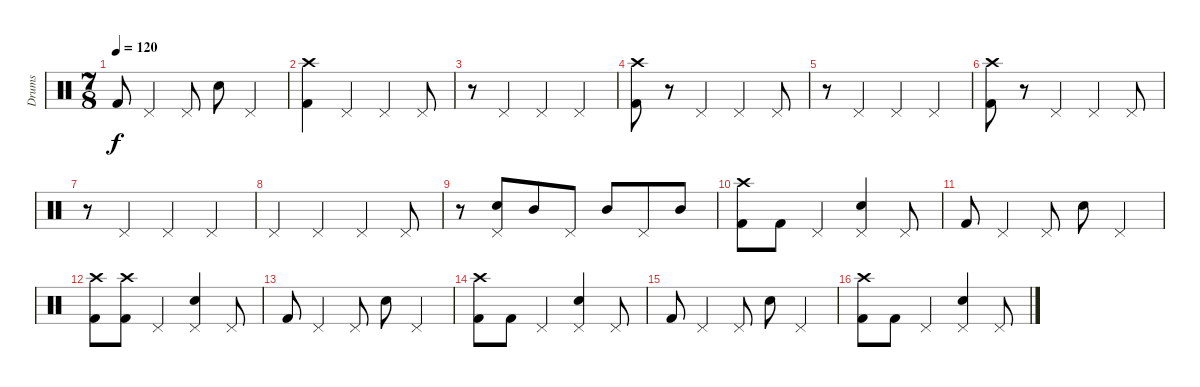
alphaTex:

\track ("Drums" "Drums") {instrument percussion}
\staff {score}
\articulation defaults
\ts (7 8)
\tempo 120
\clef neutral
\ks c "Kick (hit) 2".8{dy f} "Pedal Hi-Hat (hit)".4 "Pedal Hi-Hat (hit)".8 "Electric Snare (hit)".8 "Pedal Hi-Hat (hit)".4
|
("Crash high (hit)" "Kick (hit) 2").4 "Pedal Hi-Hat (hit)".4 "Pedal Hi-Hat (hit)".4 "Pedal Hi-Hat (hit)".8 |
r.8 "Pedal Hi-Hat (hit)".4 "Pedal Hi-Hat (hit)".4 "Pedal Hi-Hat (hit)".4 |
("Crash high (hit)" "Kick (hit) 2").8 r.8 "Pedal Hi-Hat (hit)".4 "Pedal Hi-Hat (hit)".4 "Pedal Hi-Hat (hit)".8 |
r.8 "Pedal Hi-Hat (hit)".4 "Pedal Hi-Hat (hit)".4 "Pedal Hi-Hat (hit)".4 |
("Crash high (hit)" "Kick (hit) 2").8 r.8 "Pedal Hi-Hat (hit)".4 "Pedal Hi-Hat (hit)".4 "Pedal Hi-Hat (hit)".8 |
r.8 "Pedal Hi-Hat (hit)".4 "Pedal Hi-Hat (hit)".4 "Pedal Hi-Hat (hit)".4 |
"Pedal Hi-Hat (hit)".4 "Pedal Hi-Hat (hit)".4 "Pedal Hi-Hat (hit)".4 "Pedal Hi-Hat (hit)".8 |
r.8 ("Pedal Hi-Hat (hit)" "Electric Snare (hit)").8 "Mid Tom (hit)".8 "Pedal Hi-Hat (hit)".8 "Mid Tom (hit)".8 "Pedal Hi-Hat (hit)".8 "Mid Tom (hit)".8 |
("Crash high (hit)" "Kick (hit) 2").8 "Kick (hit) 2".8 "Pedal Hi-Hat (hit)".4 ("Pedal Hi-Hat (hit)" "Electric Snare (hit)").4 "Pedal Hi-Hat (hit)".8 |
"Kick (hit) 2".8 "Pedal Hi-Hat (hit)".4 "Pedal Hi-Hat (hit)".8 "Electric Snare (hit)".8 "Pedal Hi-Hat (hit)".4 |
("Crash high (hit)" "Kick (hit) 2").8 ("Crash high (hit)" "Kick (hit) 2").8 "Pedal Hi-Hat (hit)".4 ("Pedal Hi-Hat (hit)" "Electric Snare (hit)").4 "Pedal Hi-Hat (hit)".8 |
"Kick (hit) 2".8 "Pedal Hi-Hat (hit)".4 "Pedal Hi-Hat (hit)".8 "Electric Snare (hit)".8 "Pedal Hi-Hat (hit)".4 |
("Crash high (hit)" "Kick (hit) 2").8 "Kick (hit) 2".8 "Pedal Hi-Hat (hit)".4 ("Pedal Hi-Hat (hit)" "Electric Snare (hit)").4 "Pedal Hi-Hat (hit)".8 |
"Kick (hit) 2".8 "Pedal Hi-Hat (hit)".4 "Pedal Hi-Hat (hit)".8 "Electric Snare (hit)".8 "Pedal Hi-Hat (hit)".4 |
("Crash high (hit)" "Kick (hit) 2").8 "Kick (hit) 2".8 "Pedal Hi-Hat (hit)".4 ("Pedal Hi-Hat (hit)" "Electric Snare (hit)").4 "Pedal Hi-Hat (hit)".8
